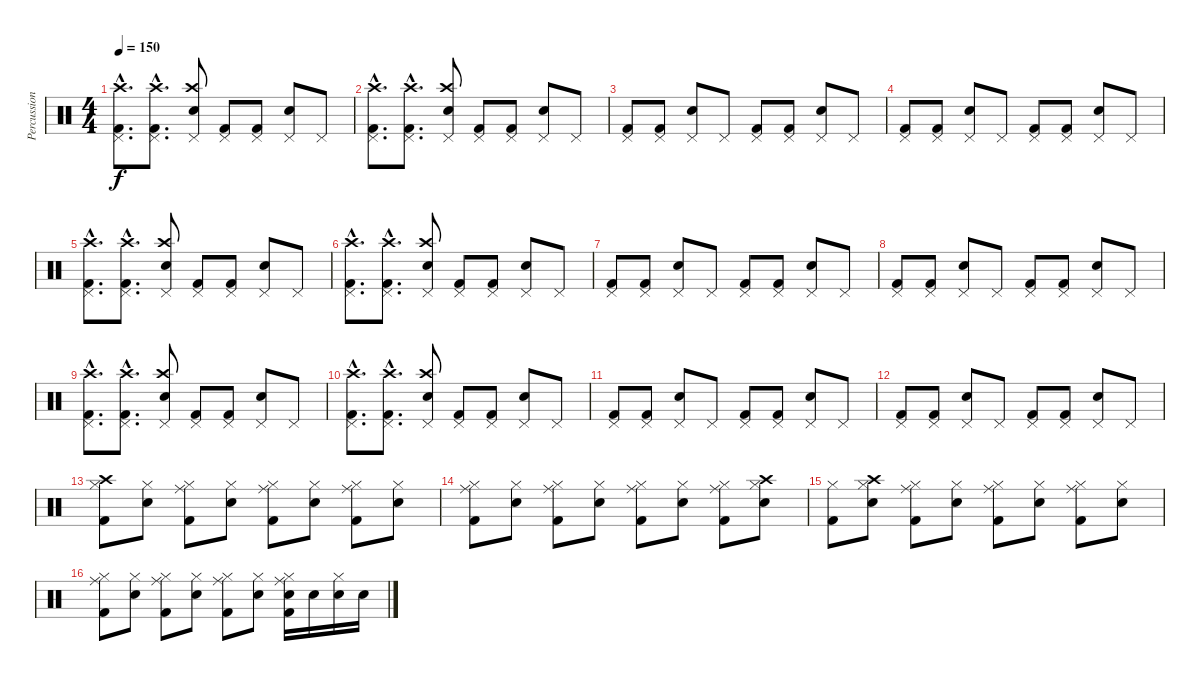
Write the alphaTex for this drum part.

\track ("Percussion" "Percussion") {instrument percussion}
\staff {score}
\articulation defaults
\ts (4 4)
\tempo 150
\clef neutral
\ks c
("Pedal Hi-Hat (hit)"{hac} "Kick (hit) 2"{hac} "Crash high (hit)"{hac}).8{d dy f} ("Pedal Hi-Hat (hit)"{hac} "Kick (hit) 2"{hac} "Crash high (hit)"{hac}).8{d} ("Pedal Hi-Hat (hit)" "Electric Snare (hit)" "Crash high (hit)").8 ("Pedal Hi-Hat (hit)" "Kick (hit) 2").8 ("Pedal Hi-Hat (hit)" "Kick (hit) 2").8 ("Pedal Hi-Hat (hit)" "Electric Snare (hit)").8 "Pedal Hi-Hat (hit)".8 |
("Pedal Hi-Hat (hit)"{hac} "Kick (hit) 2"{hac} "Crash high (hit)"{hac}).8{d} ("Pedal Hi-Hat (hit)"{hac} "Kick (hit) 2"{hac} "Crash high (hit)"{hac}).8{d} ("Pedal Hi-Hat (hit)" "Electric Snare (hit)" "Crash high (hit)").8 ("Pedal Hi-Hat (hit)" "Kick (hit) 2").8 ("Pedal Hi-Hat (hit)" "Kick (hit) 2").8 ("Pedal Hi-Hat (hit)" "Electric Snare (hit)").8 "Pedal Hi-Hat (hit)".8 |
("Pedal Hi-Hat (hit)" "Kick (hit) 2").8 ("Pedal Hi-Hat (hit)" "Kick (hit) 2").8 ("Pedal Hi-Hat (hit)" "Electric Snare (hit)").8 "Pedal Hi-Hat (hit)".8 ("Pedal Hi-Hat (hit)" "Kick (hit) 2").8 ("Pedal Hi-Hat (hit)" "Kick (hit) 2").8 ("Pedal Hi-Hat (hit)" "Electric Snare (hit)").8 "Pedal Hi-Hat (hit)".8 |
("Pedal Hi-Hat (hit)" "Kick (hit) 2").8 ("Pedal Hi-Hat (hit)" "Kick (hit) 2").8 ("Pedal Hi-Hat (hit)" "Electric Snare (hit)").8 "Pedal Hi-Hat (hit)".8 ("Pedal Hi-Hat (hit)" "Kick (hit) 2").8 ("Pedal Hi-Hat (hit)" "Kick (hit) 2").8 ("Pedal Hi-Hat (hit)" "Electric Snare (hit)").8 "Pedal Hi-Hat (hit)".8 |
("Pedal Hi-Hat (hit)"{hac} "Kick (hit) 2"{hac} "Crash high (hit)"{hac}).8{d} ("Pedal Hi-Hat (hit)"{hac} "Kick (hit) 2"{hac} "Crash high (hit)"{hac}).8{d} ("Pedal Hi-Hat (hit)" "Electric Snare (hit)" "Crash high (hit)").8 ("Pedal Hi-Hat (hit)" "Kick (hit) 2").8 ("Pedal Hi-Hat (hit)" "Kick (hit) 2").8 ("Pedal Hi-Hat (hit)" "Electric Snare (hit)").8 "Pedal Hi-Hat (hit)".8 |
("Pedal Hi-Hat (hit)"{hac} "Kick (hit) 2"{hac} "Crash high (hit)"{hac}).8{d} ("Pedal Hi-Hat (hit)"{hac} "Kick (hit) 2"{hac} "Crash high (hit)"{hac}).8{d} ("Pedal Hi-Hat (hit)" "Electric Snare (hit)" "Crash high (hit)").8 ("Pedal Hi-Hat (hit)" "Kick (hit) 2").8 ("Pedal Hi-Hat (hit)" "Kick (hit) 2").8 ("Pedal Hi-Hat (hit)" "Electric Snare (hit)").8 "Pedal Hi-Hat (hit)".8 |
("Pedal Hi-Hat (hit)" "Kick (hit) 2").8 ("Pedal Hi-Hat (hit)" "Kick (hit) 2").8 ("Pedal Hi-Hat (hit)" "Electric Snare (hit)").8 "Pedal Hi-Hat (hit)".8 ("Pedal Hi-Hat (hit)" "Kick (hit) 2").8 ("Pedal Hi-Hat (hit)" "Kick (hit) 2").8 ("Pedal Hi-Hat (hit)" "Electric Snare (hit)").8 "Pedal Hi-Hat (hit)".8 |
("Pedal Hi-Hat (hit)" "Kick (hit) 2").8 ("Pedal Hi-Hat (hit)" "Kick (hit) 2").8 ("Pedal Hi-Hat (hit)" "Electric Snare (hit)").8 "Pedal Hi-Hat (hit)".8 ("Pedal Hi-Hat (hit)" "Kick (hit) 2").8 ("Pedal Hi-Hat (hit)" "Kick (hit) 2").8 ("Pedal Hi-Hat (hit)" "Electric Snare (hit)").8 "Pedal Hi-Hat (hit)".8 |
("Pedal Hi-Hat (hit)"{hac} "Kick (hit) 2"{hac} "Crash high (hit)"{hac}).8{d} ("Pedal Hi-Hat (hit)"{hac} "Kick (hit) 2"{hac} "Crash high (hit)"{hac}).8{d} ("Pedal Hi-Hat (hit)" "Electric Snare (hit)" "Crash high (hit)").8 ("Pedal Hi-Hat (hit)" "Kick (hit) 2").8 ("Pedal Hi-Hat (hit)" "Kick (hit) 2").8 ("Pedal Hi-Hat (hit)" "Electric Snare (hit)").8 "Pedal Hi-Hat (hit)".8 |
("Pedal Hi-Hat (hit)"{hac} "Kick (hit) 2"{hac} "Crash high (hit)"{hac}).8{d} ("Pedal Hi-Hat (hit)"{hac} "Kick (hit) 2"{hac} "Crash high (hit)"{hac}).8{d} ("Pedal Hi-Hat (hit)" "Electric Snare (hit)" "Crash high (hit)").8 ("Pedal Hi-Hat (hit)" "Kick (hit) 2").8 ("Pedal Hi-Hat (hit)" "Kick (hit) 2").8 ("Pedal Hi-Hat (hit)" "Electric Snare (hit)").8 "Pedal Hi-Hat (hit)".8 |
("Pedal Hi-Hat (hit)" "Kick (hit) 2").8 ("Pedal Hi-Hat (hit)" "Kick (hit) 2").8 ("Pedal Hi-Hat (hit)" "Electric Snare (hit)").8 "Pedal Hi-Hat (hit)".8 ("Pedal Hi-Hat (hit)" "Kick (hit) 2").8 ("Pedal Hi-Hat (hit)" "Kick (hit) 2").8 ("Pedal Hi-Hat (hit)" "Electric Snare (hit)").8 "Pedal Hi-Hat (hit)".8 |
("Pedal Hi-Hat (hit)" "Kick (hit) 2").8 ("Pedal Hi-Hat (hit)" "Kick (hit) 2").8 ("Pedal Hi-Hat (hit)" "Electric Snare (hit)").8 "Pedal Hi-Hat (hit)".8 ("Pedal Hi-Hat (hit)" "Kick (hit) 2").8 ("Pedal Hi-Hat (hit)" "Kick (hit) 2").8 ("Pedal Hi-Hat (hit)" "Electric Snare (hit)").8 "Pedal Hi-Hat (hit)".8 |
("Hi-Hat (closed)" "Kick (hit) 2" "Crash high (hit)").8 ("Hi-Hat (closed)" "Electric Snare (hit)").8 ("Hi-Hat (closed)" "Kick (hit) 2" "Ride (middle)").8 ("Hi-Hat (closed)" "Electric Snare (hit)").8 ("Hi-Hat (closed)" "Kick (hit) 2" "Ride (middle)").8 ("Hi-Hat (closed)" "Electric Snare (hit)").8 ("Hi-Hat (closed)" "Kick (hit) 2" "Ride (middle)").8 ("Hi-Hat (closed)" "Electric Snare (hit)").8 |
("Hi-Hat (closed)" "Kick (hit) 2" "Ride (middle)").8 ("Hi-Hat (closed)" "Electric Snare (hit)").8 ("Hi-Hat (closed)" "Kick (hit) 2" "Ride (middle)").8 ("Hi-Hat (closed)" "Electric Snare (hit)").8 ("Hi-Hat (closed)" "Kick (hit) 2" "Ride (middle)").8 ("Hi-Hat (closed)" "Electric Snare (hit)").8 ("Hi-Hat (closed)" "Kick (hit) 2" "Ride (middle)").8 ("Hi-Hat (closed)" "Electric Snare (hit)" "Crash high (hit)").8 |
("Hi-Hat (closed)" "Kick (hit) 2").8 ("Hi-Hat (closed)" "Electric Snare (hit)" "Crash high (hit)").8 ("Hi-Hat (closed)" "Kick (hit) 2" "Ride (middle)").8 ("Hi-Hat (closed)" "Electric Snare (hit)").8 ("Hi-Hat (closed)" "Kick (hit) 2" "Ride (middle)").8 ("Hi-Hat (closed)" "Electric Snare (hit)").8 ("Hi-Hat (closed)" "Kick (hit) 2" "Ride (middle)").8 ("Hi-Hat (closed)" "Electric Snare (hit)").8 |
("Hi-Hat (closed)" "Kick (hit) 2" "Ride (middle)").8 ("Hi-Hat (closed)" "Electric Snare (hit)").8 ("Hi-Hat (closed)" "Kick (hit) 2" "Ride (middle)").8 ("Hi-Hat (closed)" "Electric Snare (hit)").8 ("Hi-Hat (closed)" "Kick (hit) 2" "Ride (middle)").8 ("Hi-Hat (closed)" "Electric Snare (hit)").8 ("Hi-Hat (closed)" "Electric Snare (hit)" "Kick (hit) 2" "Ride (middle)").16 "Electric Snare (hit)".16 ("Hi-Hat (closed)" "Electric Snare (hit)").16 "Electric Snare (hit)".16
